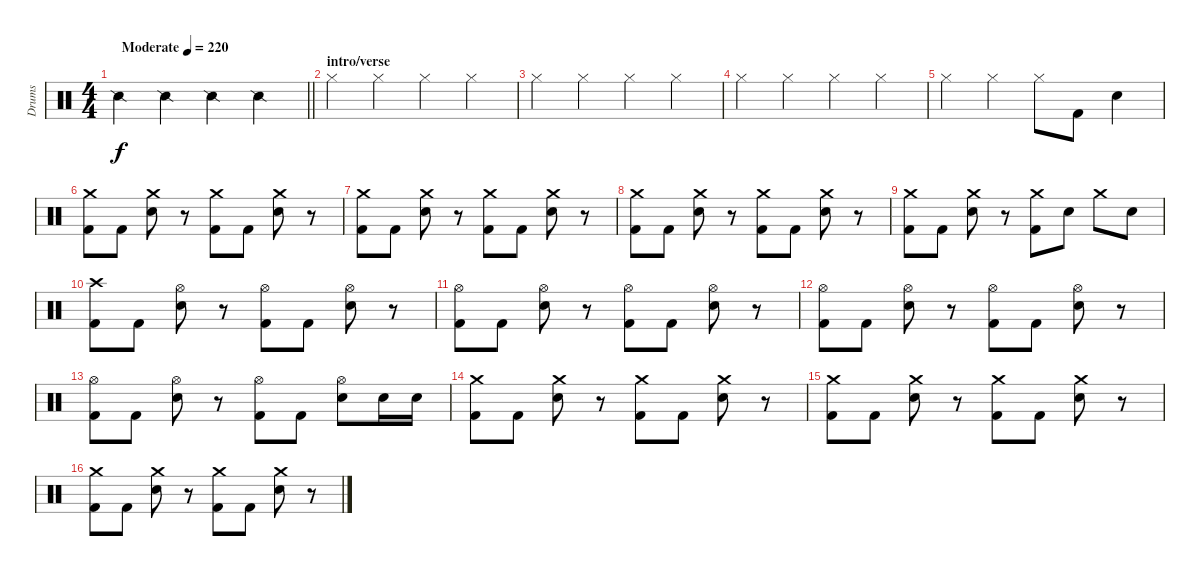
\track ("Drums" "Drums") {instrument percussion}
\staff {score}
\articulation defaults
\ts (4 4)
\tempo (220 "Moderate")
\clef neutral
\barLineRight lightlight
\ks c "Snare (side stick) 2".4{dy f} "Snare (side stick) 2".4 "Snare (side stick) 2".4 "Snare (side stick) 2".4
|
\section ("" "intro/verse")
"Hi-Hat (closed)".4 "Hi-Hat (closed)".4 "Hi-Hat (closed)".4 "Hi-Hat (closed)".4 |
"Hi-Hat (closed)".4 "Hi-Hat (closed)".4 "Hi-Hat (closed)".4 "Hi-Hat (closed)".4 |
"Hi-Hat (closed)".4 "Hi-Hat (closed)".4 "Hi-Hat (closed)".4 "Hi-Hat (closed)".4 |
"Hi-Hat (closed)".4 "Hi-Hat (closed)".4 "Hi-Hat (closed)".8 "Kick (hit) 2".8 "Electric Snare (hit)".4 |
("Crash medium (hit)" "Kick (hit) 2").8 "Kick (hit) 2".8 ("Crash medium (hit)" "Electric Snare (hit)").8 r.8 ("Crash medium (hit)" "Kick (hit) 2").8 "Kick (hit) 2".8 ("Crash medium (hit)" "Electric Snare (hit)").8 r.8 |
("Crash medium (hit)" "Kick (hit) 2").8 "Kick (hit) 2".8 ("Crash medium (hit)" "Electric Snare (hit)").8 r.8 ("Crash medium (hit)" "Kick (hit) 2").8 "Kick (hit) 2".8 ("Crash medium (hit)" "Electric Snare (hit)").8 r.8 |
("Crash medium (hit)" "Kick (hit) 2").8 "Kick (hit) 2".8 ("Crash medium (hit)" "Electric Snare (hit)").8 r.8 ("Crash medium (hit)" "Kick (hit) 2").8 "Kick (hit) 2".8 ("Crash medium (hit)" "Electric Snare (hit)").8 r.8 |
("Crash medium (hit)" "Kick (hit) 2").8 "Kick (hit) 2".8 ("Crash medium (hit)" "Electric Snare (hit)").8 r.8 ("Crash medium (hit)" "Kick (hit) 2").8 "Electric Snare (hit)".8 "Crash medium (hit)".8 "Electric Snare (hit)".8 |
("Crash high (hit)" "Kick (hit) 2").8 "Kick (hit) 2".8 ("Hi-Hat (open)" "Electric Snare (hit)").8 r.8 ("Hi-Hat (open)" "Kick (hit) 2").8 "Kick (hit) 2".8 ("Hi-Hat (open)" "Electric Snare (hit)").8 r.8 |
("Hi-Hat (open)" "Kick (hit) 2").8 "Kick (hit) 2".8 ("Hi-Hat (open)" "Electric Snare (hit)").8 r.8 ("Hi-Hat (open)" "Kick (hit) 2").8 "Kick (hit) 2".8 ("Hi-Hat (open)" "Electric Snare (hit)").8 r.8 |
("Hi-Hat (open)" "Kick (hit) 2").8 "Kick (hit) 2".8 ("Hi-Hat (open)" "Electric Snare (hit)").8 r.8 ("Hi-Hat (open)" "Kick (hit) 2").8 "Kick (hit) 2".8 ("Hi-Hat (open)" "Electric Snare (hit)").8 r.8 |
("Hi-Hat (open)" "Kick (hit) 2").8 "Kick (hit) 2".8 ("Hi-Hat (open)" "Electric Snare (hit)").8 r.8 ("Hi-Hat (open)" "Kick (hit) 2").8 "Kick (hit) 2".8 ("Hi-Hat (open)" "Electric Snare (hit)").8 "Electric Snare (hit)".16 "Electric Snare (hit)".16 |
("Crash medium (hit)" "Kick (hit) 2").8 "Kick (hit) 2".8 ("Crash medium (hit)" "Electric Snare (hit)").8 r.8 ("Crash medium (hit)" "Kick (hit) 2").8 "Kick (hit) 2".8 ("Crash medium (hit)" "Electric Snare (hit)").8 r.8 |
("Crash medium (hit)" "Kick (hit) 2").8 "Kick (hit) 2".8 ("Crash medium (hit)" "Electric Snare (hit)").8 r.8 ("Crash medium (hit)" "Kick (hit) 2").8 "Kick (hit) 2".8 ("Crash medium (hit)" "Electric Snare (hit)").8 r.8 |
("Crash medium (hit)" "Kick (hit) 2").8 "Kick (hit) 2".8 ("Crash medium (hit)" "Electric Snare (hit)").8 r.8 ("Crash medium (hit)" "Kick (hit) 2").8 "Kick (hit) 2".8 ("Crash medium (hit)" "Electric Snare (hit)").8 r.8
